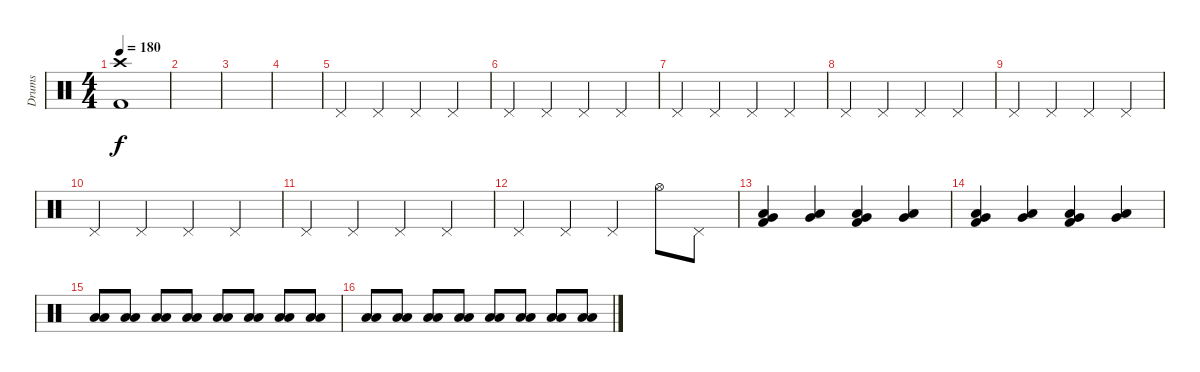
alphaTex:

\track ("Drums" "Drums") {instrument percussion}
\staff {score}
\articulation defaults
\ts (4 4)
\tempo 180
\clef neutral
\ks c
("Crash high (hit)" "Kick (hit) 2").1{dy f} |
|
|
|
"Pedal Hi-Hat (hit)".4 "Pedal Hi-Hat (hit)".4 "Pedal Hi-Hat (hit)".4 "Pedal Hi-Hat (hit)".4 |
"Pedal Hi-Hat (hit)".4 "Pedal Hi-Hat (hit)".4 "Pedal Hi-Hat (hit)".4 "Pedal Hi-Hat (hit)".4 |
"Pedal Hi-Hat (hit)".4 "Pedal Hi-Hat (hit)".4 "Pedal Hi-Hat (hit)".4 "Pedal Hi-Hat (hit)".4 |
"Pedal Hi-Hat (hit)".4 "Pedal Hi-Hat (hit)".4 "Pedal Hi-Hat (hit)".4 "Pedal Hi-Hat (hit)".4 |
"Pedal Hi-Hat (hit)".4 "Pedal Hi-Hat (hit)".4 "Pedal Hi-Hat (hit)".4 "Pedal Hi-Hat (hit)".4 |
"Pedal Hi-Hat (hit)".4 "Pedal Hi-Hat (hit)".4 "Pedal Hi-Hat (hit)".4 "Pedal Hi-Hat (hit)".4 |
"Pedal Hi-Hat (hit)".4 "Pedal Hi-Hat (hit)".4 "Pedal Hi-Hat (hit)".4 "Pedal Hi-Hat (hit)".4 |
"Pedal Hi-Hat (hit)".4 "Pedal Hi-Hat (hit)".4 "Pedal Hi-Hat (hit)".4 "Hi-Hat (open)".8 "Pedal Hi-Hat (hit)".8 |
("Very Low Tom (hit)" "Low Floor Tom (hit)" "Kick (hit) 2").4 ("Low Tom (hit)" "Very Low Tom (hit)").4 ("Very Low Tom (hit)" "Low Floor Tom (hit)" "Kick (hit) 2").4 ("Low Tom (hit)" "Very Low Tom (hit)").4 |
("Very Low Tom (hit)" "Low Floor Tom (hit)" "Kick (hit) 2").4 ("Low Tom (hit)" "Very Low Tom (hit)").4 ("Very Low Tom (hit)" "Low Floor Tom (hit)" "Kick (hit) 2").4 ("Low Tom (hit)" "Very Low Tom (hit)").4 |
("Low Tom (hit)" "Low Floor Tom (hit)").8{volume 7} ("Low Tom (hit)" "Low Floor Tom (hit)").8{volume 15} ("Low Tom (hit)" "Low Floor Tom (hit)").8 ("Low Tom (hit)" "Low Floor Tom (hit)").8 ("Low Tom (hit)" "Low Floor Tom (hit)").8 ("Low Tom (hit)" "Low Floor Tom (hit)").8 ("Low Tom (hit)" "Low Floor Tom (hit)").8 ("Low Tom (hit)" "Low Floor Tom (hit)").8 |
("Low Tom (hit)" "Low Floor Tom (hit)").8 ("Low Tom (hit)" "Low Floor Tom (hit)").8 ("Low Tom (hit)" "Low Floor Tom (hit)").8 ("Low Tom (hit)" "Low Floor Tom (hit)").8 ("Low Tom (hit)" "Low Floor Tom (hit)").8 ("Low Tom (hit)" "Low Floor Tom (hit)").8 ("Low Tom (hit)" "Low Floor Tom (hit)").8 ("Low Tom (hit)" "Low Floor Tom (hit)").8
